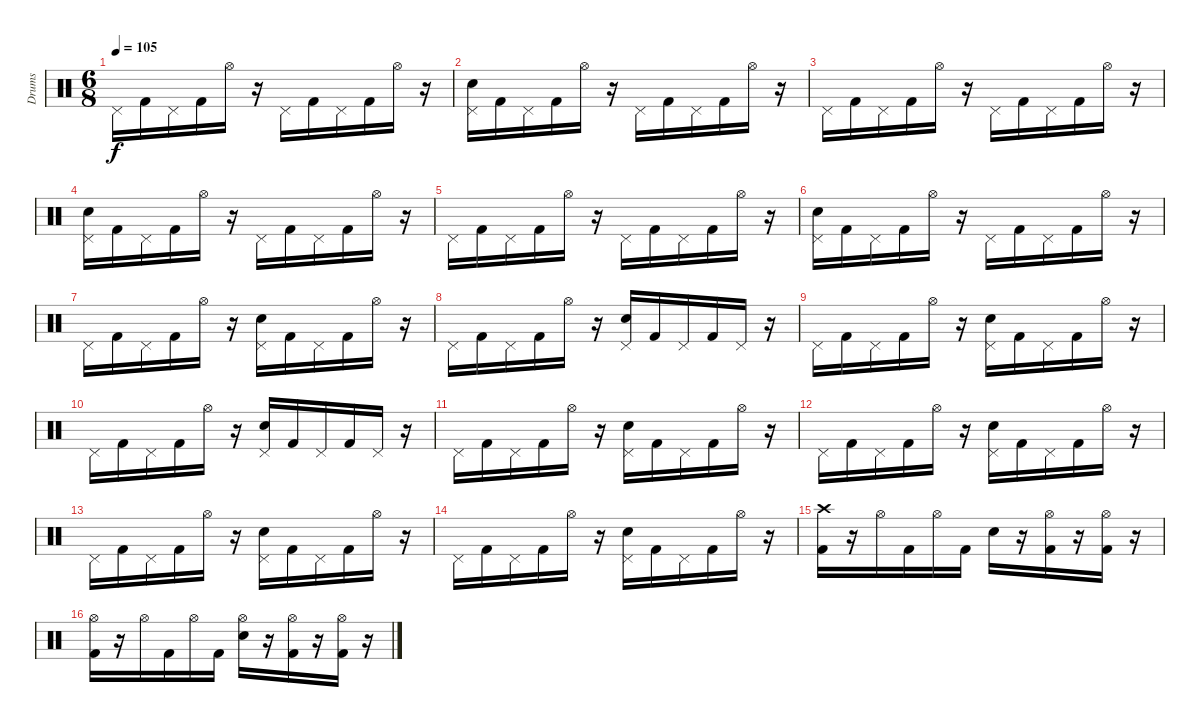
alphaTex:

\track ("Drums" "Drums") {instrument percussion}
\staff {score}
\articulation defaults
\ts (6 8)
\tempo 105
\clef neutral
\ks c "Pedal Hi-Hat (hit)".16{dy f} "Kick (hit) 2".16 "Pedal Hi-Hat (hit)".16 "Kick (hit) 2".16 "Hi-Hat (open)".16
r.16 "Pedal Hi-Hat (hit)".16 "Kick (hit) 2".16 "Pedal Hi-Hat (hit)".16 "Kick (hit) 2".16 "Hi-Hat (open)".16 r.16 |
("Pedal Hi-Hat (hit)" "Electric Snare (hit)").16 "Kick (hit) 2".16 "Pedal Hi-Hat (hit)".16 "Kick (hit) 2".16 "Hi-Hat (open)".16 r.16 "Pedal Hi-Hat (hit)".16 "Kick (hit) 2".16 "Pedal Hi-Hat (hit)".16 "Kick (hit) 2".16 "Hi-Hat (open)".16 r.16 |
"Pedal Hi-Hat (hit)".16 "Kick (hit) 2".16 "Pedal Hi-Hat (hit)".16 "Kick (hit) 2".16 "Hi-Hat (open)".16 r.16 "Pedal Hi-Hat (hit)".16 "Kick (hit) 2".16 "Pedal Hi-Hat (hit)".16 "Kick (hit) 2".16 "Hi-Hat (open)".16 r.16 |
("Pedal Hi-Hat (hit)" "Electric Snare (hit)").16 "Kick (hit) 2".16 "Pedal Hi-Hat (hit)".16 "Kick (hit) 2".16 "Hi-Hat (open)".16 r.16 "Pedal Hi-Hat (hit)".16 "Kick (hit) 2".16 "Pedal Hi-Hat (hit)".16 "Kick (hit) 2".16 "Hi-Hat (open)".16 r.16 |
"Pedal Hi-Hat (hit)".16 "Kick (hit) 2".16 "Pedal Hi-Hat (hit)".16 "Kick (hit) 2".16 "Hi-Hat (open)".16 r.16 "Pedal Hi-Hat (hit)".16 "Kick (hit) 2".16 "Pedal Hi-Hat (hit)".16 "Kick (hit) 2".16 "Hi-Hat (open)".16 r.16 |
("Pedal Hi-Hat (hit)" "Electric Snare (hit)").16 "Kick (hit) 2".16 "Pedal Hi-Hat (hit)".16 "Kick (hit) 2".16 "Hi-Hat (open)".16 r.16 "Pedal Hi-Hat (hit)".16 "Kick (hit) 2".16 "Pedal Hi-Hat (hit)".16 "Kick (hit) 2".16 "Hi-Hat (open)".16 r.16 |
"Pedal Hi-Hat (hit)".16 "Kick (hit) 2".16 "Pedal Hi-Hat (hit)".16 "Kick (hit) 2".16 "Hi-Hat (open)".16 r.16 ("Pedal Hi-Hat (hit)" "Electric Snare (hit)").16 "Kick (hit) 2".16 "Pedal Hi-Hat (hit)".16 "Kick (hit) 2".16 "Hi-Hat (open)".16 r.16 |
"Pedal Hi-Hat (hit)".16 "Kick (hit) 2".16 "Pedal Hi-Hat (hit)".16 "Kick (hit) 2".16 "Hi-Hat (open)".16 r.16 ("Pedal Hi-Hat (hit)" "Electric Snare (hit)").16 "Kick (hit) 2".16 "Pedal Hi-Hat (hit)".16 "Kick (hit) 2".16 "Pedal Hi-Hat (hit)".16 r.16 |
"Pedal Hi-Hat (hit)".16 "Kick (hit) 2".16 "Pedal Hi-Hat (hit)".16 "Kick (hit) 2".16 "Hi-Hat (open)".16 r.16 ("Pedal Hi-Hat (hit)" "Electric Snare (hit)").16 "Kick (hit) 2".16 "Pedal Hi-Hat (hit)".16 "Kick (hit) 2".16 "Hi-Hat (open)".16 r.16 |
"Pedal Hi-Hat (hit)".16 "Kick (hit) 2".16 "Pedal Hi-Hat (hit)".16 "Kick (hit) 2".16 "Hi-Hat (open)".16 r.16 ("Pedal Hi-Hat (hit)" "Electric Snare (hit)").16 "Kick (hit) 2".16 "Pedal Hi-Hat (hit)".16 "Kick (hit) 2".16 "Pedal Hi-Hat (hit)".16 r.16 |
"Pedal Hi-Hat (hit)".16 "Kick (hit) 2".16 "Pedal Hi-Hat (hit)".16 "Kick (hit) 2".16 "Hi-Hat (open)".16 r.16 ("Pedal Hi-Hat (hit)" "Electric Snare (hit)").16 "Kick (hit) 2".16 "Pedal Hi-Hat (hit)".16 "Kick (hit) 2".16 "Hi-Hat (open)".16 r.16 |
"Pedal Hi-Hat (hit)".16 "Kick (hit) 2".16 "Pedal Hi-Hat (hit)".16 "Kick (hit) 2".16 "Hi-Hat (open)".16 r.16 ("Pedal Hi-Hat (hit)" "Electric Snare (hit)").16 "Kick (hit) 2".16 "Pedal Hi-Hat (hit)".16 "Kick (hit) 2".16 "Hi-Hat (open)".16 r.16 |
"Pedal Hi-Hat (hit)".16 "Kick (hit) 2".16 "Pedal Hi-Hat (hit)".16 "Kick (hit) 2".16 "Hi-Hat (open)".16 r.16 ("Pedal Hi-Hat (hit)" "Electric Snare (hit)").16 "Kick (hit) 2".16 "Pedal Hi-Hat (hit)".16 "Kick (hit) 2".16 "Hi-Hat (open)".16 r.16 |
"Pedal Hi-Hat (hit)".16 "Kick (hit) 2".16 "Pedal Hi-Hat (hit)".16 "Kick (hit) 2".16 "Hi-Hat (open)".16 r.16 ("Pedal Hi-Hat (hit)" "Electric Snare (hit)").16 "Kick (hit) 2".16 "Pedal Hi-Hat (hit)".16 "Kick (hit) 2".16 "Hi-Hat (open)".16 r.16 |
("Crash high (hit)" "Kick (hit) 2").16 r.16 "Hi-Hat (open)".16 "Kick (hit) 2".16 "Hi-Hat (open)".16 "Kick (hit) 2".16 "Electric Snare (hit)".16 r.16 ("Hi-Hat (open)" "Kick (hit) 2").16 r.16 ("Hi-Hat (open)" "Kick (hit) 2").16 r.16 |
("Hi-Hat (open)" "Kick (hit) 2").16 r.16 "Hi-Hat (open)".16 "Kick (hit) 2".16 "Hi-Hat (open)".16 "Kick (hit) 2".16 ("Hi-Hat (open)" "Electric Snare (hit)").16 r.16 ("Hi-Hat (open)" "Kick (hit) 2").16 r.16 ("Hi-Hat (open)" "Kick (hit) 2").16 r.16
